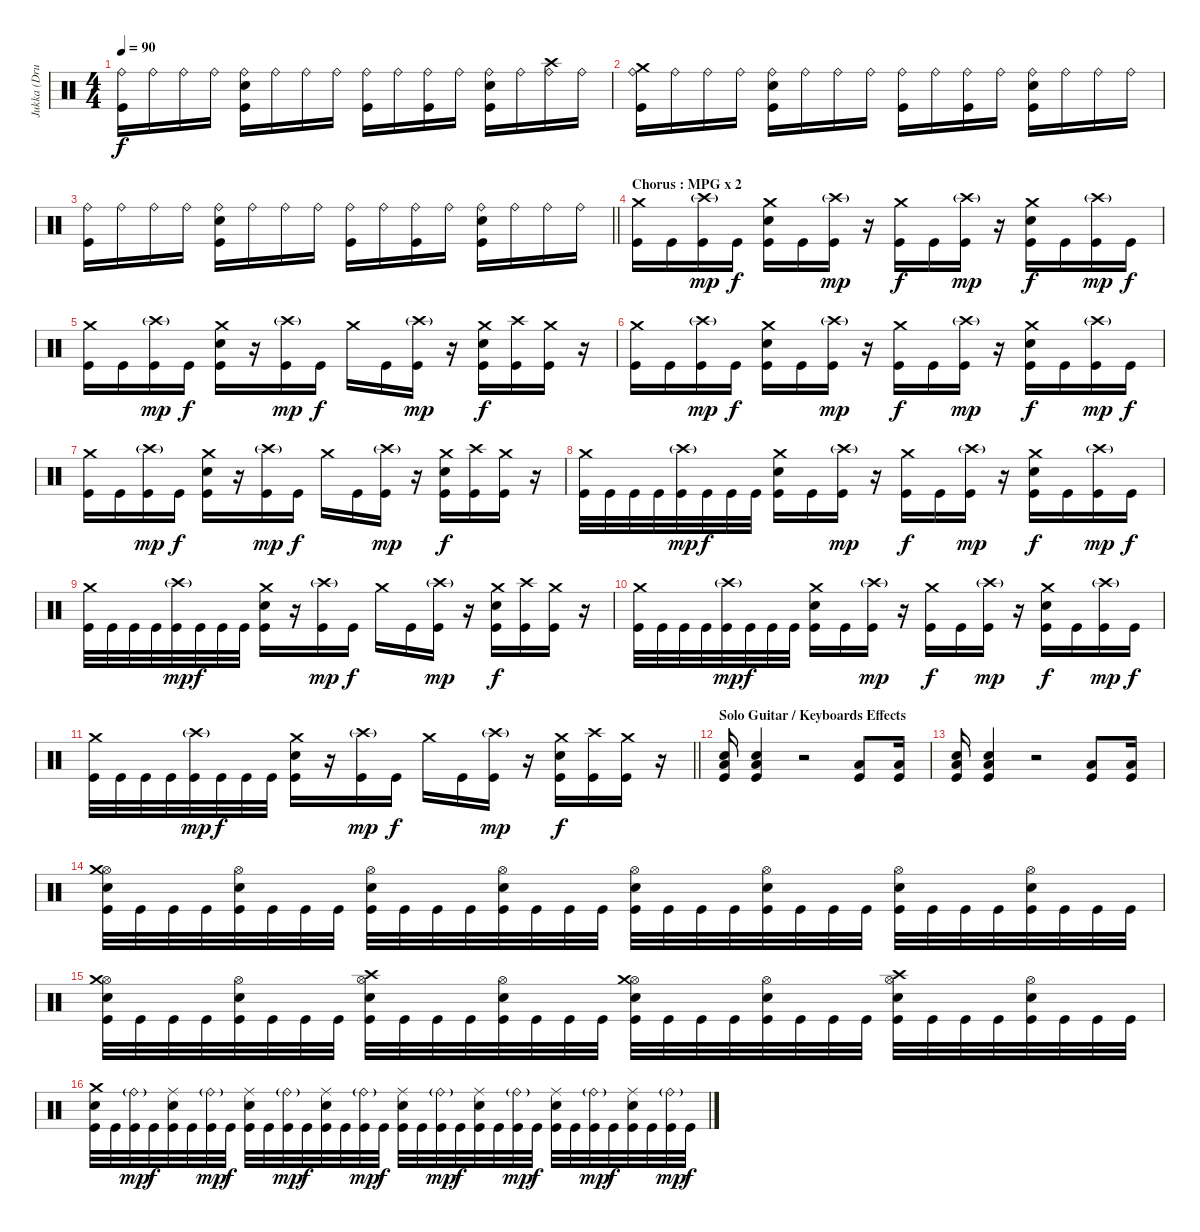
\track ("Jukka (Drums)" "Jukka (Dru") {instrument percussion}
\staff {score}
\articulation defaults
\ts (4 4)
\tempo 90
\clef neutral
\ks c
("Ride (bell)" "Kick (hit)").16{dy f} "Ride (bell)".16 "Ride (bell)".16 "Ride (bell)".16 ("Ride (bell)" "Snare (hit) 2" "Kick (hit)").16 "Ride (bell)".16 "Ride (bell)".16 "Ride (bell)".16 ("Ride (bell)" "Kick (hit)").16 "Ride (bell)".16 ("Ride (bell)" "Kick (hit)").16 "Ride (bell)".16 ("Ride (bell)" "Snare (hit) 2" "Kick (hit)").16 "Ride (bell)".16 ("Ride (bell)" "Crash high (hit)").16 "Ride (bell)".16 |
("Ride (bell)" "Crash medium (hit)" "Kick (hit)").16 "Ride (bell)".16 "Ride (bell)".16 "Ride (bell)".16 ("Ride (bell)" "Snare (hit) 2" "Kick (hit)").16 "Ride (bell)".16 "Ride (bell)".16 "Ride (bell)".16 ("Ride (bell)" "Kick (hit)").16 "Ride (bell)".16 ("Ride (bell)" "Kick (hit)").16 "Ride (bell)".16 ("Ride (bell)" "Snare (hit) 2" "Kick (hit)").16 "Ride (bell)".16 "Ride (bell)".16 "Ride (bell)".16 |
\barLineRight lightlight
("Ride (bell)" "Kick (hit)").16 "Ride (bell)".16 "Ride (bell)".16 "Ride (bell)".16 ("Ride (bell)" "Snare (hit) 2" "Kick (hit)").16 "Ride (bell)".16 "Ride (bell)".16 "Ride (bell)".16 ("Ride (bell)" "Kick (hit)").16 "Ride (bell)".16 ("Ride (bell)" "Kick (hit)").16 "Ride (bell)".16 ("Ride (bell)" "Snare (hit) 2" "Kick (hit)").16 "Ride (bell)".16 "Ride (bell)".16 "Ride (bell)".16 |
\section ("" "Chorus : MPG x 2")
("Crash medium (hit)" "Kick (hit)").16 "Kick (hit)".16 ("Crash high (hit)"{g} "Kick (hit)").16{dy mp} "Kick (hit)".16{dy f} ("Crash medium (hit)" "Snare (hit) 2" "Kick (hit)").16 "Kick (hit)".16 ("Crash high (hit)"{g} "Kick (hit)").16{dy mp} r.16 ("Crash medium (hit)" "Kick (hit)").16{dy f} "Kick (hit)".16 ("Crash high (hit)"{g} "Kick (hit)").16{dy mp} r.16 ("Crash medium (hit)" "Snare (hit) 2" "Kick (hit)").16{dy f} "Kick (hit)".16 ("Crash high (hit)"{g} "Kick (hit)").16{dy mp} "Kick (hit)".16{dy f} |
("Crash medium (hit)" "Kick (hit)").16 "Kick (hit)".16 ("Crash high (hit)"{g} "Kick (hit)").16{dy mp} "Kick (hit)".16{dy f} ("Crash medium (hit)" "Snare (hit) 2" "Kick (hit)").16 r.16 ("Crash high (hit)"{g} "Kick (hit)").16{dy mp} "Kick (hit)".16{dy f} "Crash medium (hit)".16 "Kick (hit)".16 ("Crash high (hit)"{g} "Kick (hit)").16{dy mp} r.16 ("Crash medium (hit)" "Snare (hit) 2" "Kick (hit)").16{dy f} ("Crash high (hit)" "Kick (hit)").16 ("Crash medium (hit)" "Kick (hit)").16 r.16 |
("Crash medium (hit)" "Kick (hit)").16 "Kick (hit)".16 ("Crash high (hit)"{g} "Kick (hit)").16{dy mp} "Kick (hit)".16{dy f} ("Crash medium (hit)" "Snare (hit) 2" "Kick (hit)").16 "Kick (hit)".16 ("Crash high (hit)"{g} "Kick (hit)").16{dy mp} r.16 ("Crash medium (hit)" "Kick (hit)").16{dy f} "Kick (hit)".16 ("Crash high (hit)"{g} "Kick (hit)").16{dy mp} r.16 ("Crash medium (hit)" "Snare (hit) 2" "Kick (hit)").16{dy f} "Kick (hit)".16 ("Crash high (hit)"{g} "Kick (hit)").16{dy mp} "Kick (hit)".16{dy f} |
("Crash medium (hit)" "Kick (hit)").16 "Kick (hit)".16 ("Crash high (hit)"{g} "Kick (hit)").16{dy mp} "Kick (hit)".16{dy f} ("Crash medium (hit)" "Snare (hit) 2" "Kick (hit)").16 r.16 ("Crash high (hit)"{g} "Kick (hit)").16{dy mp} "Kick (hit)".16{dy f} "Crash medium (hit)".16 "Kick (hit)".16 ("Crash high (hit)"{g} "Kick (hit)").16{dy mp} r.16 ("Crash medium (hit)" "Snare (hit) 2" "Kick (hit)").16{dy f} ("Crash high (hit)" "Kick (hit)").16 ("Crash medium (hit)" "Kick (hit)").16 r.16 |
("Crash medium (hit)" "Kick (hit)").32 "Kick (hit)".32 "Kick (hit)".32 "Kick (hit)".32 ("Crash high (hit)"{g} "Kick (hit)").32{dy mp} "Kick (hit)".32{dy f} "Kick (hit)".32 "Kick (hit)".32 ("Crash medium (hit)" "Snare (hit) 2" "Kick (hit)").16 "Kick (hit)".16 ("Crash high (hit)"{g} "Kick (hit)").16{dy mp} r.16 ("Crash medium (hit)" "Kick (hit)").16{dy f} "Kick (hit)".16 ("Crash high (hit)"{g} "Kick (hit)").16{dy mp} r.16 ("Crash medium (hit)" "Snare (hit) 2" "Kick (hit)").16{dy f} "Kick (hit)".16 ("Crash high (hit)"{g} "Kick (hit)").16{dy mp} "Kick (hit)".16{dy f} |
("Crash medium (hit)" "Kick (hit)").32 "Kick (hit)".32 "Kick (hit)".32 "Kick (hit)".32 ("Crash high (hit)"{g} "Kick (hit)").32{dy mp} "Kick (hit)".32{dy f} "Kick (hit)".32 "Kick (hit)".32 ("Crash medium (hit)" "Snare (hit) 2" "Kick (hit)").16 r.16 ("Crash high (hit)"{g} "Kick (hit)").16{dy mp} "Kick (hit)".16{dy f} "Crash medium (hit)".16 "Kick (hit)".16 ("Crash high (hit)"{g} "Kick (hit)").16{dy mp} r.16 ("Crash medium (hit)" "Snare (hit) 2" "Kick (hit)").16{dy f} ("Crash high (hit)" "Kick (hit)").16 ("Crash medium (hit)" "Kick (hit)").16 r.16 |
("Crash medium (hit)" "Kick (hit)").32 "Kick (hit)".32 "Kick (hit)".32 "Kick (hit)".32 ("Crash high (hit)"{g} "Kick (hit)").32{dy mp} "Kick (hit)".32{dy f} "Kick (hit)".32 "Kick (hit)".32 ("Crash medium (hit)" "Snare (hit) 2" "Kick (hit)").16 "Kick (hit)".16 ("Crash high (hit)"{g} "Kick (hit)").16{dy mp} r.16 ("Crash medium (hit)" "Kick (hit)").16{dy f} "Kick (hit)".16 ("Crash high (hit)"{g} "Kick (hit)").16{dy mp} r.16 ("Crash medium (hit)" "Snare (hit) 2" "Kick (hit)").16{dy f} "Kick (hit)".16 ("Crash high (hit)"{g} "Kick (hit)").16{dy mp} "Kick (hit)".16{dy f} |
\barLineRight lightlight
("Crash medium (hit)" "Kick (hit)").32 "Kick (hit)".32 "Kick (hit)".32 "Kick (hit)".32 ("Crash high (hit)"{g} "Kick (hit)").32{dy mp} "Kick (hit)".32{dy f} "Kick (hit)".32 "Kick (hit)".32 ("Crash medium (hit)" "Snare (hit) 2" "Kick (hit)").16 r.16 ("Crash high (hit)"{g} "Kick (hit)").16{dy mp} "Kick (hit)".16{dy f} "Crash medium (hit)".16 "Kick (hit)".16 ("Crash high (hit)"{g} "Kick (hit)").16{dy mp} r.16 ("Crash medium (hit)" "Snare (hit) 2" "Kick (hit)").16{dy f} ("Crash high (hit)" "Kick (hit)").16 ("Crash medium (hit)" "Kick (hit)").16 r.16 |
\section ("" "Solo Guitar / Keyboards Effects")
("Snare (hit) 2" "Low Floor Tom (hit)" "Kick (hit)").16 ("Snare (hit) 2" "Low Floor Tom (hit)" "Kick (hit)").4 r.2 ("Low Floor Tom (hit)" "Kick (hit)").8 ("Low Floor Tom (hit)" "Kick (hit)").16 |
("Snare (hit) 2" "Low Floor Tom (hit)" "Kick (hit)").16 ("Snare (hit) 2" "Low Floor Tom (hit)" "Kick (hit)").4 r.2 ("Low Floor Tom (hit)" "Kick (hit)").8 ("Low Floor Tom (hit)" "Kick (hit)").16 |
("Hi-Hat (open)" "Crash medium (hit)" "Snare (hit) 2" "Kick (hit)").32 "Kick (hit)".32 "Kick (hit)".32 "Kick (hit)".32 ("Hi-Hat (open)" "Snare (hit) 2" "Kick (hit)").32 "Kick (hit)".32 "Kick (hit)".32 "Kick (hit)".32 ("Hi-Hat (open)" "Snare (hit) 2" "Kick (hit)").32 "Kick (hit)".32 "Kick (hit)".32 "Kick (hit)".32 ("Hi-Hat (open)" "Snare (hit) 2" "Kick (hit)").32 "Kick (hit)".32 "Kick (hit)".32 "Kick (hit)".32 ("Hi-Hat (open)" "Snare (hit) 2" "Kick (hit)").32 "Kick (hit)".32 "Kick (hit)".32 "Kick (hit)".32 ("Hi-Hat (open)" "Snare (hit) 2" "Kick (hit)").32 "Kick (hit)".32 "Kick (hit)".32 "Kick (hit)".32 ("Hi-Hat (open)" "Snare (hit) 2" "Kick (hit)").32 "Kick (hit)".32 "Kick (hit)".32 "Kick (hit)".32 ("Hi-Hat (open)" "Snare (hit) 2" "Kick (hit)").32 "Kick (hit)".32 "Kick (hit)".32 "Kick (hit)".32 |
("Hi-Hat (open)" "Crash medium (hit)" "Snare (hit) 2" "Kick (hit)").32 "Kick (hit)".32 "Kick (hit)".32 "Kick (hit)".32 ("Hi-Hat (open)" "Snare (hit) 2" "Kick (hit)").32 "Kick (hit)".32 "Kick (hit)".32 "Kick (hit)".32 ("Hi-Hat (open)" "Crash high (hit)" "Snare (hit) 2" "Kick (hit)").32 "Kick (hit)".32 "Kick (hit)".32 "Kick (hit)".32 ("Hi-Hat (open)" "Snare (hit) 2" "Kick (hit)").32 "Kick (hit)".32 "Kick (hit)".32 "Kick (hit)".32 ("Hi-Hat (open)" "Crash medium (hit)" "Snare (hit) 2" "Kick (hit)").32 "Kick (hit)".32 "Kick (hit)".32 "Kick (hit)".32 ("Hi-Hat (open)" "Snare (hit) 2" "Kick (hit)").32 "Kick (hit)".32 "Kick (hit)".32 "Kick (hit)".32 ("Hi-Hat (open)" "Crash high (hit)" "Snare (hit) 2" "Kick (hit)").32 "Kick (hit)".32 "Kick (hit)".32 "Kick (hit)".32 ("Hi-Hat (open)" "Snare (hit) 2" "Kick (hit)").32 "Kick (hit)".32 "Kick (hit)".32 "Kick (hit)".32 |
("Crash medium (hit)" "Snare (hit) 2" "Kick (hit)").32 "Kick (hit)".32 ("Ride (bell)"{g} "Kick (hit)").32{dy mp} "Kick (hit)".32{dy f} ("Ride (middle)" "Snare (hit) 2" "Kick (hit)").32 "Kick (hit)".32 ("Ride (bell)"{g} "Kick (hit)").32{dy mp} "Kick (hit)".32{dy f} ("Ride (middle)" "Snare (hit) 2" "Kick (hit)").32 "Kick (hit)".32 ("Ride (bell)"{g} "Kick (hit)").32{dy mp} "Kick (hit)".32{dy f} ("Ride (middle)" "Snare (hit) 2" "Kick (hit)").32 "Kick (hit)".32 ("Ride (bell)"{g} "Kick (hit)").32{dy mp} "Kick (hit)".32{dy f} ("Ride (middle)" "Snare (hit) 2" "Kick (hit)").32 "Kick (hit)".32 ("Ride (bell)"{g} "Kick (hit)").32{dy mp} "Kick (hit)".32{dy f} ("Ride (middle)" "Snare (hit) 2" "Kick (hit)").32 "Kick (hit)".32 ("Ride (bell)"{g} "Kick (hit)").32{dy mp} "Kick (hit)".32{dy f} ("Ride (middle)" "Snare (hit) 2" "Kick (hit)").32 "Kick (hit)".32 ("Ride (bell)"{g} "Kick (hit)").32{dy mp} "Kick (hit)".32{dy f} ("Ride (middle)" "Snare (hit) 2" "Kick (hit)").32 "Kick (hit)".32 ("Ride (bell)"{g} "Kick (hit)").32{dy mp} "Kick (hit)".32{dy f}
